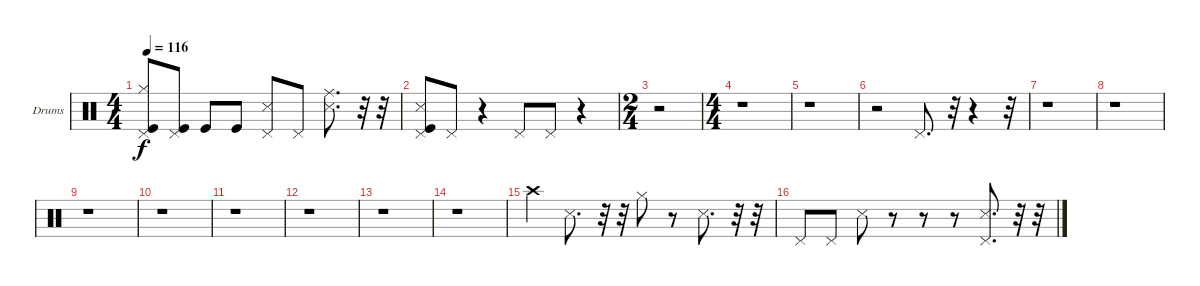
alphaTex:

\bracketExtendMode groupsimilarinstruments
\firstSystemTrackNameOrientation horizontal
\otherSystemsTrackNameOrientation horizontal
\track ("Drumkit" "Drums") {instrument percussion}
\staff {score}
\articulation defaults
\ts (4 4)
\tempo 116
\clef neutral
\ks c
("Kick (hit)" "Hi-Hat (closed)" "Pedal Hi-Hat (hit)").8{dy f} ("Kick (hit)" "Pedal Hi-Hat (hit)").8 "Kick (hit)".8 "Kick (hit)".8 ("Snare (side stick) 3" "Pedal Hi-Hat (hit)").8 "Pedal Hi-Hat (hit)".8 ("Snare (side stick) 3" "Ride (middle)").8{d} r.32 r.32 |
("Snare (side stick) 3" "Kick (hit)" "Pedal Hi-Hat (hit)").8 "Pedal Hi-Hat (hit)".8 r.4 "Pedal Hi-Hat (hit)".8 "Pedal Hi-Hat (hit)".8 r.4 |
\ts (2 4)
r.2 |
\ts (4 4)
r.1 |
r.1 |
r.2 "Pedal Hi-Hat (hit)".8{d} r.32 r.4 r.32 |
r.1 |
r.1 |
r.1 |
r.1 |
r.1 |
r.1 |
r.1 |
r.1 |
"Crash high (hit)".4 "Snare (side stick) 3".8{d} r.32 r.32 "Hi-Hat (closed)".8 r.8 "Snare (side stick) 3".8{d} r.32 r.32 |
"Pedal Hi-Hat (hit)".8 "Pedal Hi-Hat (hit)".8 "Snare (side stick) 3".8 r.8 r.8 r.8 ("Snare (side stick) 3" "Pedal Hi-Hat (hit)").8{d} r.32 r.32
